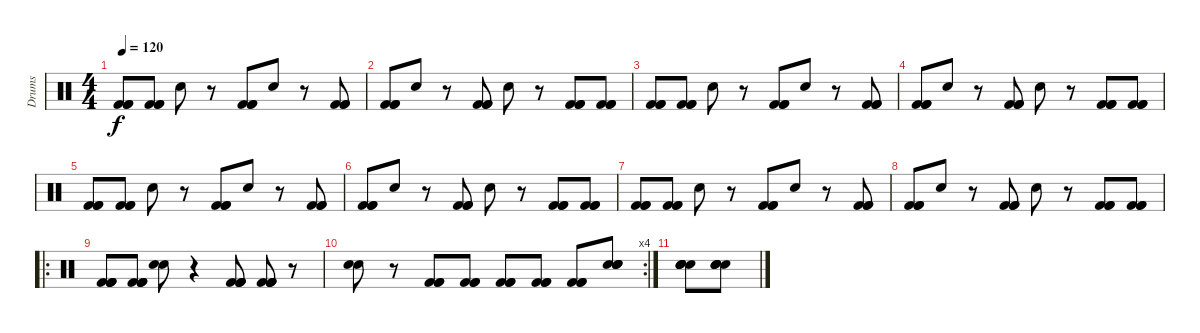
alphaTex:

\track ("Drums" "Drums") {instrument percussion}
\staff {score}
\articulation defaults
\ts (4 4)
\tempo 120
\clef neutral
\ks c
("Kick (hit) 2" "Kick (hit) 2" "Kick (hit) 2").8{dy f} ("Kick (hit) 2" "Kick (hit) 2" "Kick (hit) 2").8 "Snare (hit) 2".8 r.8 ("Kick (hit) 2" "Kick (hit) 2" "Kick (hit) 2").8 "Snare (hit) 2".8 r.8 ("Kick (hit) 2" "Kick (hit) 2" "Kick (hit) 2").8 |
("Kick (hit) 2" "Kick (hit) 2" "Kick (hit) 2").8 "Snare (hit) 2".8 r.8 ("Kick (hit) 2" "Kick (hit) 2" "Kick (hit) 2").8 "Snare (hit) 2".8 r.8 ("Kick (hit) 2" "Kick (hit) 2" "Kick (hit) 2").8 ("Kick (hit) 2" "Kick (hit) 2" "Kick (hit) 2").8 |
("Kick (hit) 2" "Kick (hit) 2" "Kick (hit) 2").8 ("Kick (hit) 2" "Kick (hit) 2" "Kick (hit) 2").8 "Snare (hit) 2".8 r.8 ("Kick (hit) 2" "Kick (hit) 2" "Kick (hit) 2").8 "Snare (hit) 2".8 r.8 ("Kick (hit) 2" "Kick (hit) 2" "Kick (hit) 2").8 |
("Kick (hit) 2" "Kick (hit) 2" "Kick (hit) 2").8 "Snare (hit) 2".8 r.8 ("Kick (hit) 2" "Kick (hit) 2" "Kick (hit) 2").8 "Snare (hit) 2".8 r.8 ("Kick (hit) 2" "Kick (hit) 2" "Kick (hit) 2").8 ("Kick (hit) 2" "Kick (hit) 2" "Kick (hit) 2").8 |
("Kick (hit) 2" "Kick (hit) 2" "Kick (hit) 2").8 ("Kick (hit) 2" "Kick (hit) 2" "Kick (hit) 2").8 "Snare (hit) 2".8 r.8 ("Kick (hit) 2" "Kick (hit) 2" "Kick (hit) 2").8 "Snare (hit) 2".8 r.8 ("Kick (hit) 2" "Kick (hit) 2" "Kick (hit) 2").8 |
("Kick (hit) 2" "Kick (hit) 2" "Kick (hit) 2").8 "Snare (hit) 2".8 r.8 ("Kick (hit) 2" "Kick (hit) 2" "Kick (hit) 2").8 "Snare (hit) 2".8 r.8 ("Kick (hit) 2" "Kick (hit) 2" "Kick (hit) 2").8 ("Kick (hit) 2" "Kick (hit) 2" "Kick (hit) 2").8 |
("Kick (hit) 2" "Kick (hit) 2" "Kick (hit) 2").8 ("Kick (hit) 2" "Kick (hit) 2" "Kick (hit) 2").8 "Snare (hit) 2".8 r.8 ("Kick (hit) 2" "Kick (hit) 2" "Kick (hit) 2").8 "Snare (hit) 2".8 r.8 ("Kick (hit) 2" "Kick (hit) 2" "Kick (hit) 2").8 |
("Kick (hit) 2" "Kick (hit) 2" "Kick (hit) 2").8 "Snare (hit) 2".8 r.8 ("Kick (hit) 2" "Kick (hit) 2" "Kick (hit) 2").8 "Snare (hit) 2".8 r.8 ("Kick (hit) 2" "Kick (hit) 2" "Kick (hit) 2").8 ("Kick (hit) 2" "Kick (hit) 2" "Kick (hit) 2").8 |
\ro
("Kick (hit) 2" "Kick (hit) 2" "Kick (hit) 2" "Kick (hit) 2").8 ("Kick (hit) 2" "Kick (hit) 2" "Kick (hit) 2" "Kick (hit) 2").8 ("Snare (hit) 2" "Snare (hit) 2").8 r.4 ("Kick (hit) 2" "Kick (hit) 2" "Kick (hit) 2" "Kick (hit) 2").8 ("Kick (hit) 2" "Kick (hit) 2" "Kick (hit) 2" "Kick (hit) 2").8 r.8 |
\rc 4
("Snare (hit) 2" "Snare (hit) 2").8 r.8 ("Kick (hit) 2" "Kick (hit) 2" "Kick (hit) 2").8 ("Kick (hit) 2" "Kick (hit) 2" "Kick (hit) 2").8 ("Kick (hit) 2" "Kick (hit) 2" "Kick (hit) 2").8 ("Kick (hit) 2" "Kick (hit) 2" "Kick (hit) 2").8 ("Kick (hit) 2" "Kick (hit) 2" "Kick (hit) 2").8 ("Snare (hit) 2" "Snare (hit) 2" "Snare (hit) 2" "Snare (hit) 2").8 |
("Snare (hit) 2" "Snare (hit) 2" "Snare (hit) 2" "Snare (hit) 2").8 ("Snare (hit) 2" "Snare (hit) 2" "Snare (hit) 2" "Snare (hit) 2").8
